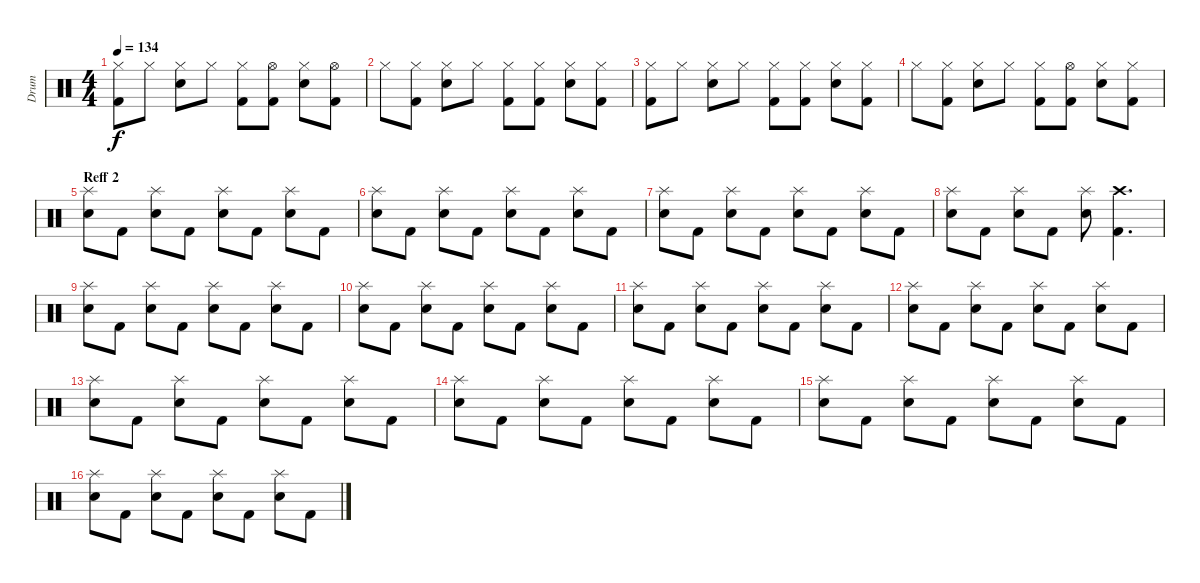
\track ("Drum" "Drum") {instrument percussion}
\staff {score}
\articulation defaults
\ts (4 4)
\tempo 134
\clef neutral
\ks c
("Kick (hit) 2" "Hi-Hat (closed)").8{dy f} "Hi-Hat (closed)".8 ("Hi-Hat (closed)" "Electric Snare (hit)").8 "Hi-Hat (closed)".8 ("Hi-Hat (closed)" "Kick (hit) 2").8 ("Hi-Hat (open)" "Kick (hit) 2").8 ("Electric Snare (hit)" "Hi-Hat (closed)").8 ("Hi-Hat (open)" "Kick (hit) 2").8 |
"Hi-Hat (closed)".8 ("Hi-Hat (closed)" "Kick (hit) 2").8 ("Electric Snare (hit)" "Hi-Hat (closed)").8 "Hi-Hat (closed)".8 ("Kick (hit) 2" "Hi-Hat (closed)").8 ("Hi-Hat (closed)" "Kick (hit) 2").8 ("Hi-Hat (closed)" "Electric Snare (hit)").8 ("Kick (hit) 2" "Hi-Hat (closed)").8 |
("Kick (hit) 2" "Hi-Hat (closed)").8 "Hi-Hat (closed)".8 ("Hi-Hat (closed)" "Electric Snare (hit)").8 "Hi-Hat (closed)".8 ("Hi-Hat (closed)" "Kick (hit) 2").8 ("Hi-Hat (closed)" "Kick (hit) 2").8 ("Electric Snare (hit)" "Hi-Hat (closed)").8 ("Hi-Hat (closed)" "Kick (hit) 2").8 |
"Hi-Hat (closed)".8 ("Hi-Hat (closed)" "Kick (hit) 2").8 ("Electric Snare (hit)" "Hi-Hat (closed)").8 "Hi-Hat (closed)".8 ("Kick (hit) 2" "Hi-Hat (closed)").8 ("Hi-Hat (open)" "Kick (hit) 2").8 ("Hi-Hat (closed)" "Electric Snare (hit)").8 ("Kick (hit) 2" "Hi-Hat (closed)").8 |
\section ("" "Reff 2")
("Electric Snare (hit)" "Splash (hit)").8 "Kick (hit) 2".8 ("Electric Snare (hit)" "Splash (hit)").8 "Kick (hit) 2".8 ("Electric Snare (hit)" "Splash (hit)").8 "Kick (hit) 2".8 ("Electric Snare (hit)" "Splash (hit)").8 "Kick (hit) 2".8 |
("Electric Snare (hit)" "Splash (hit)").8 "Kick (hit) 2".8 ("Electric Snare (hit)" "Splash (hit)").8 "Kick (hit) 2".8 ("Electric Snare (hit)" "Splash (hit)").8 "Kick (hit) 2".8 ("Electric Snare (hit)" "Splash (hit)").8 "Kick (hit) 2".8 |
("Electric Snare (hit)" "Splash (hit)").8 "Kick (hit) 2".8 ("Electric Snare (hit)" "Splash (hit)").8 "Kick (hit) 2".8 ("Electric Snare (hit)" "Splash (hit)").8 "Kick (hit) 2".8 ("Electric Snare (hit)" "Splash (hit)").8 "Kick (hit) 2".8 |
("Electric Snare (hit)" "Splash (hit)").8 "Kick (hit) 2".8 ("Electric Snare (hit)" "Splash (hit)").8 "Kick (hit) 2".8 ("Electric Snare (hit)" "Splash (hit)").8 ("Kick (hit) 2" "Crash high (hit)").4{d} |
("Electric Snare (hit)" "Splash (hit)").8 "Kick (hit) 2".8 ("Electric Snare (hit)" "Splash (hit)").8 "Kick (hit) 2".8 ("Electric Snare (hit)" "Splash (hit)").8 "Kick (hit) 2".8 ("Electric Snare (hit)" "Splash (hit)").8 "Kick (hit) 2".8 |
("Electric Snare (hit)" "Splash (hit)").8 "Kick (hit) 2".8 ("Electric Snare (hit)" "Splash (hit)").8 "Kick (hit) 2".8 ("Electric Snare (hit)" "Splash (hit)").8 "Kick (hit) 2".8 ("Electric Snare (hit)" "Splash (hit)").8 "Kick (hit) 2".8 |
("Electric Snare (hit)" "Splash (hit)").8 "Kick (hit) 2".8 ("Electric Snare (hit)" "Splash (hit)").8 "Kick (hit) 2".8 ("Electric Snare (hit)" "Splash (hit)").8 "Kick (hit) 2".8 ("Electric Snare (hit)" "Splash (hit)").8 "Kick (hit) 2".8 |
("Electric Snare (hit)" "Splash (hit)").8 "Kick (hit) 2".8 ("Electric Snare (hit)" "Splash (hit)").8 "Kick (hit) 2".8 ("Electric Snare (hit)" "Splash (hit)").8 "Kick (hit) 2".8 ("Electric Snare (hit)" "Splash (hit)").8 "Kick (hit) 2".8 |
("Electric Snare (hit)" "Splash (hit)").8 "Kick (hit) 2".8 ("Electric Snare (hit)" "Splash (hit)").8 "Kick (hit) 2".8 ("Electric Snare (hit)" "Splash (hit)").8 "Kick (hit) 2".8 ("Electric Snare (hit)" "Splash (hit)").8 "Kick (hit) 2".8 |
("Electric Snare (hit)" "Splash (hit)").8 "Kick (hit) 2".8 ("Electric Snare (hit)" "Splash (hit)").8 "Kick (hit) 2".8 ("Electric Snare (hit)" "Splash (hit)").8 "Kick (hit) 2".8 ("Electric Snare (hit)" "Splash (hit)").8 "Kick (hit) 2".8 |
("Electric Snare (hit)" "Splash (hit)").8 "Kick (hit) 2".8 ("Electric Snare (hit)" "Splash (hit)").8 "Kick (hit) 2".8 ("Electric Snare (hit)" "Splash (hit)").8 "Kick (hit) 2".8 ("Electric Snare (hit)" "Splash (hit)").8 "Kick (hit) 2".8 |
("Electric Snare (hit)" "Splash (hit)").8 "Kick (hit) 2".8 ("Electric Snare (hit)" "Splash (hit)").8 "Kick (hit) 2".8 ("Electric Snare (hit)" "Splash (hit)").8 "Kick (hit) 2".8 ("Electric Snare (hit)" "Splash (hit)").8 "Kick (hit) 2".8
